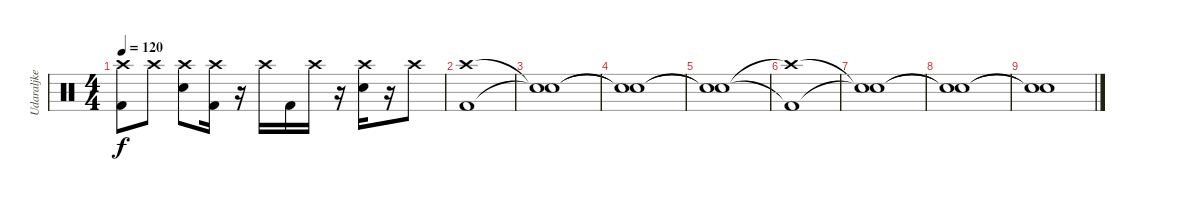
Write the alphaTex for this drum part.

\track ("Udaraljke" "Udaraljke") {instrument percussion}
\staff {score}
\articulation defaults
\ts (4 4)
\tempo 120
\clef neutral
\ks c
("Crash high (hit)" "Kick (hit) 2").8{dy f} "Crash high (hit)".8 ("Crash high (hit)" "Snare (hit) 2").8 ("Crash high (hit)" "Kick (hit) 2").16 r.16 "Crash high (hit)".16 "Kick (hit) 2".16 "Crash high (hit)".16 r.16 ("Crash high (hit)" "Snare (hit) 2").16 r.16 "Crash high (hit)".8 |
("Crash high (hit)" "Kick (hit) 2").1 |
("Snare (hit)"{t} "Snare (hit)"{t}).1 |
("Snare (hit)"{t} "Snare (hit)"{t}).1 |
("Snare (hit)"{t} "Snare (hit)"{t}).1 |
("Crash high (hit)"{t} "Kick (hit) 2"{t}).1 |
("Snare (hit)"{t} "Snare (hit)"{t}).1 |
("Snare (hit)"{t} "Snare (hit)"{t}).1 |
("Snare (hit)"{t} "Snare (hit)"{t}).1
